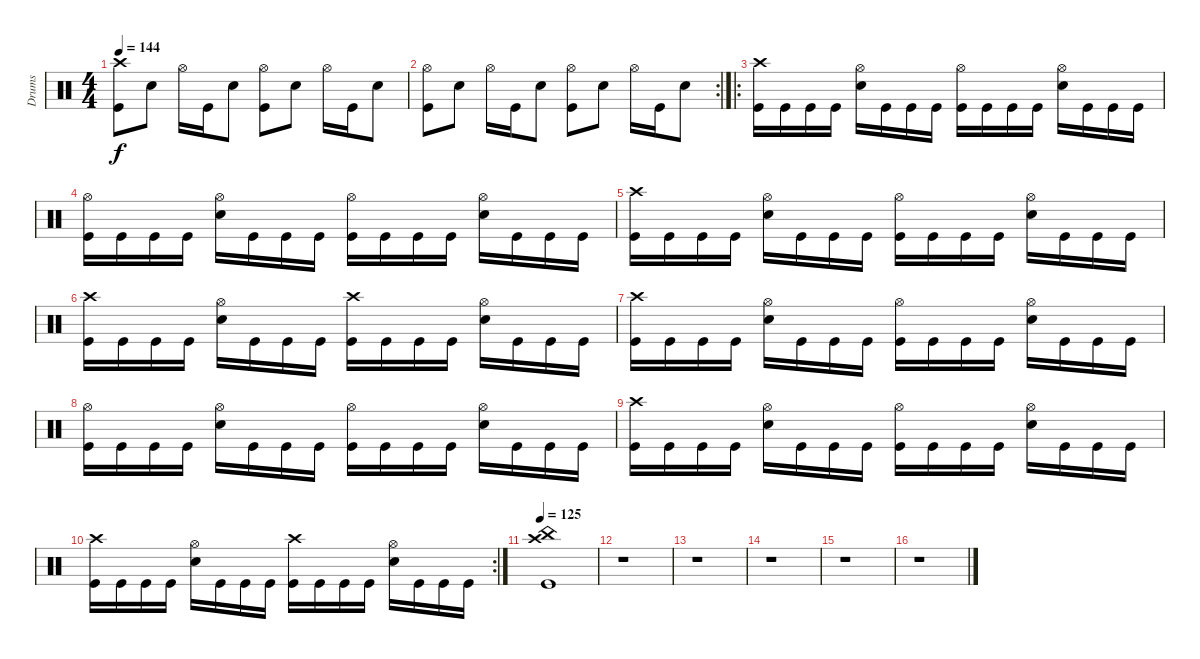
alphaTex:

\track ("Drums" "Drums") {instrument percussion}
\staff {score}
\articulation defaults
\ts (4 4)
\tempo 144
\clef neutral
\ks c
("Crash high (hit)" "Kick (hit)").8{dy f} "Electric Snare (hit)".8 "Hi-Hat (open)".16 "Kick (hit)".16 "Electric Snare (hit)".8 ("Hi-Hat (open)" "Kick (hit)").8 "Electric Snare (hit)".8 "Hi-Hat (open)".16 "Kick (hit)".16 "Electric Snare (hit)".8 |
\rc 2
("Hi-Hat (open)" "Kick (hit)").8 "Electric Snare (hit)".8 "Hi-Hat (open)".16 "Kick (hit)".16 "Electric Snare (hit)".8 ("Hi-Hat (open)" "Kick (hit)").8 "Electric Snare (hit)".8 "Hi-Hat (open)".16 "Kick (hit)".16 "Electric Snare (hit)".8 |
\ro
("Crash high (hit)" "Kick (hit)").16 "Kick (hit)".16 "Kick (hit)".16 "Kick (hit)".16 ("Hi-Hat (open)" "Electric Snare (hit)").16 "Kick (hit)".16 "Kick (hit)".16 "Kick (hit)".16 ("Hi-Hat (open)" "Kick (hit)").16 "Kick (hit)".16 "Kick (hit)".16 "Kick (hit)".16 ("Hi-Hat (open)" "Electric Snare (hit)").16 "Kick (hit)".16 "Kick (hit)".16 "Kick (hit)".16 |
("Hi-Hat (open)" "Kick (hit)").16 "Kick (hit)".16 "Kick (hit)".16 "Kick (hit)".16 ("Hi-Hat (open)" "Electric Snare (hit)").16 "Kick (hit)".16 "Kick (hit)".16 "Kick (hit)".16 ("Hi-Hat (open)" "Kick (hit)").16 "Kick (hit)".16 "Kick (hit)".16 "Kick (hit)".16 ("Hi-Hat (open)" "Electric Snare (hit)").16 "Kick (hit)".16 "Kick (hit)".16 "Kick (hit)".16 |
("Crash high (hit)" "Kick (hit)").16 "Kick (hit)".16 "Kick (hit)".16 "Kick (hit)".16 ("Hi-Hat (open)" "Electric Snare (hit)").16 "Kick (hit)".16 "Kick (hit)".16 "Kick (hit)".16 ("Hi-Hat (open)" "Kick (hit)").16 "Kick (hit)".16 "Kick (hit)".16 "Kick (hit)".16 ("Hi-Hat (open)" "Electric Snare (hit)").16 "Kick (hit)".16 "Kick (hit)".16 "Kick (hit)".16 |
("Crash high (hit)" "Kick (hit)").16 "Kick (hit)".16 "Kick (hit)".16 "Kick (hit)".16 ("Hi-Hat (open)" "Electric Snare (hit)").16 "Kick (hit)".16 "Kick (hit)".16 "Kick (hit)".16 ("Crash high (hit)" "Kick (hit)").16 "Kick (hit)".16 "Kick (hit)".16 "Kick (hit)".16 ("Hi-Hat (open)" "Electric Snare (hit)").16 "Kick (hit)".16 "Kick (hit)".16 "Kick (hit)".16 |
("Crash high (hit)" "Kick (hit)").16 "Kick (hit)".16 "Kick (hit)".16 "Kick (hit)".16 ("Hi-Hat (open)" "Electric Snare (hit)").16 "Kick (hit)".16 "Kick (hit)".16 "Kick (hit)".16 ("Hi-Hat (open)" "Kick (hit)").16 "Kick (hit)".16 "Kick (hit)".16 "Kick (hit)".16 ("Hi-Hat (open)" "Electric Snare (hit)").16 "Kick (hit)".16 "Kick (hit)".16 "Kick (hit)".16 |
("Hi-Hat (open)" "Kick (hit)").16 "Kick (hit)".16 "Kick (hit)".16 "Kick (hit)".16 ("Hi-Hat (open)" "Electric Snare (hit)").16 "Kick (hit)".16 "Kick (hit)".16 "Kick (hit)".16 ("Hi-Hat (open)" "Kick (hit)").16 "Kick (hit)".16 "Kick (hit)".16 "Kick (hit)".16 ("Hi-Hat (open)" "Electric Snare (hit)").16 "Kick (hit)".16 "Kick (hit)".16 "Kick (hit)".16 |
("Crash high (hit)" "Kick (hit)").16 "Kick (hit)".16 "Kick (hit)".16 "Kick (hit)".16 ("Hi-Hat (open)" "Electric Snare (hit)").16 "Kick (hit)".16 "Kick (hit)".16 "Kick (hit)".16 ("Hi-Hat (open)" "Kick (hit)").16 "Kick (hit)".16 "Kick (hit)".16 "Kick (hit)".16 ("Hi-Hat (open)" "Electric Snare (hit)").16 "Kick (hit)".16 "Kick (hit)".16 "Kick (hit)".16 |
\rc 2
("Crash high (hit)" "Kick (hit)").16 "Kick (hit)".16 "Kick (hit)".16 "Kick (hit)".16 ("Hi-Hat (open)" "Electric Snare (hit)").16 "Kick (hit)".16 "Kick (hit)".16 "Kick (hit)".16 ("Crash high (hit)" "Kick (hit)").16 "Kick (hit)".16 "Kick (hit)".16 "Kick (hit)".16 ("Hi-Hat (open)" "Electric Snare (hit)").16 "Kick (hit)".16 "Kick (hit)".16 "Kick (hit)".16 |
\tempo 125
("Crash high (hit)" "China (hit)" "Kick (hit)").1 |
r.1 |
r.1 |
r.1 |
r.1 |
r.1
